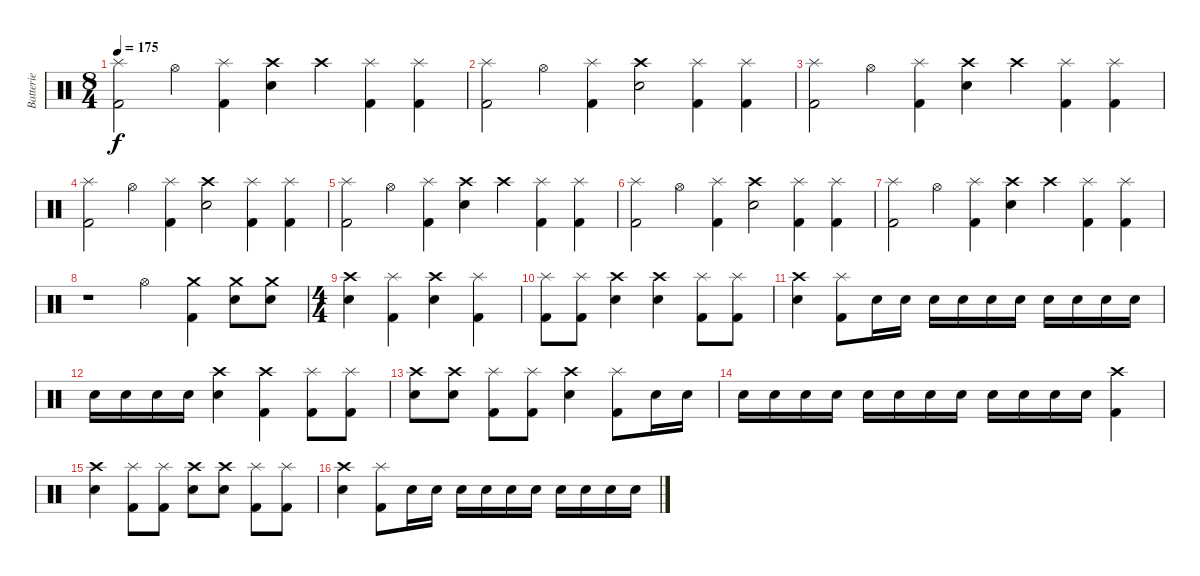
\track ("Batterie" "Batterie") {instrument percussion}
\staff {score}
\articulation defaults
\ts (8 4)
\tempo 175
\clef neutral
\ks c
("Splash (hit)" "Kick (hit) 2").2{dy f} "Hi-Hat (open)".4 ("Splash (hit)" "Kick (hit) 2").4 ("Crash high (hit)" "Snare (hit) 2").4 "Crash high (hit)".4 ("Splash (hit)" "Kick (hit) 2").4 ("Splash (hit)" "Kick (hit) 2").4 |
("Splash (hit)" "Kick (hit) 2").2 "Hi-Hat (open)".4 ("Splash (hit)" "Kick (hit) 2").4 ("Crash high (hit)" "Snare (hit) 2").2 ("Splash (hit)" "Kick (hit) 2").4 ("Splash (hit)" "Kick (hit) 2").4 |
("Splash (hit)" "Kick (hit) 2").2 "Hi-Hat (open)".4 ("Splash (hit)" "Kick (hit) 2").4 ("Crash high (hit)" "Snare (hit) 2").4 "Crash high (hit)".4 ("Splash (hit)" "Kick (hit) 2").4 ("Splash (hit)" "Kick (hit) 2").4 |
("Splash (hit)" "Kick (hit) 2").2 "Hi-Hat (open)".4 ("Splash (hit)" "Kick (hit) 2").4 ("Crash high (hit)" "Snare (hit) 2").2 ("Splash (hit)" "Kick (hit) 2").4 ("Splash (hit)" "Kick (hit) 2").4 |
("Splash (hit)" "Kick (hit) 2").2 "Hi-Hat (open)".4 ("Splash (hit)" "Kick (hit) 2").4 ("Crash high (hit)" "Snare (hit) 2").4 "Crash high (hit)".4 ("Splash (hit)" "Kick (hit) 2").4 ("Splash (hit)" "Kick (hit) 2").4 |
("Splash (hit)" "Kick (hit) 2").2 "Hi-Hat (open)".4 ("Splash (hit)" "Kick (hit) 2").4 ("Crash high (hit)" "Snare (hit) 2").2 ("Splash (hit)" "Kick (hit) 2").4 ("Splash (hit)" "Kick (hit) 2").4 |
("Splash (hit)" "Kick (hit) 2").2 "Hi-Hat (open)".4 ("Splash (hit)" "Kick (hit) 2").4 ("Crash high (hit)" "Snare (hit) 2").4 "Crash high (hit)".4 ("Splash (hit)" "Kick (hit) 2").4 ("Splash (hit)" "Kick (hit) 2").4 |
r.1 "Hi-Hat (open)".2 ("Crash medium (hit)" "Kick (hit) 2").4 ("Crash medium (hit)" "Snare (hit) 2").8 ("Crash medium (hit)" "Snare (hit) 2").8 |
\ts (4 4)
("Crash high (hit)" "Snare (hit) 2").4 ("Splash (hit)" "Kick (hit) 2").4 ("Crash high (hit)" "Snare (hit) 2").4 ("Splash (hit)" "Kick (hit) 2").4 |
("Splash (hit)" "Kick (hit) 2").8 ("Splash (hit)" "Kick (hit) 2").8 ("Crash high (hit)" "Snare (hit) 2").4 ("Crash high (hit)" "Snare (hit) 2").4 ("Splash (hit)" "Kick (hit) 2").8 ("Splash (hit)" "Kick (hit) 2").8 |
("Crash high (hit)" "Snare (hit) 2").4 ("Splash (hit)" "Kick (hit) 2").8 "Snare (hit) 2".16 "Snare (hit) 2".16 "Snare (hit) 2".16 "Snare (hit) 2".16 "Snare (hit) 2".16 "Snare (hit) 2".16 "Snare (hit) 2".16 "Snare (hit) 2".16 "Snare (hit) 2".16 "Snare (hit) 2".16 |
"Snare (hit) 2".16 "Snare (hit) 2".16 "Snare (hit) 2".16 "Snare (hit) 2".16 ("Crash high (hit)" "Snare (hit) 2").4 ("Crash high (hit)" "Kick (hit) 2").4 ("Splash (hit)" "Kick (hit) 2").8 ("Splash (hit)" "Kick (hit) 2").8 |
("Crash high (hit)" "Snare (hit) 2").8 ("Crash high (hit)" "Snare (hit) 2").8 ("Splash (hit)" "Kick (hit) 2").8 ("Splash (hit)" "Kick (hit) 2").8 ("Crash high (hit)" "Snare (hit) 2").4 ("Splash (hit)" "Kick (hit) 2").8 "Snare (hit) 2".16 "Snare (hit) 2".16 |
"Snare (hit) 2".16 "Snare (hit) 2".16 "Snare (hit) 2".16 "Snare (hit) 2".16 "Snare (hit) 2".16 "Snare (hit) 2".16 "Snare (hit) 2".16 "Snare (hit) 2".16 "Snare (hit) 2".16 "Snare (hit) 2".16 "Snare (hit) 2".16 "Snare (hit) 2".16 ("Crash high (hit)" "Kick (hit) 2").4 |
("Crash high (hit)" "Snare (hit) 2").4 ("Splash (hit)" "Kick (hit) 2").8 ("Splash (hit)" "Kick (hit) 2").8 ("Crash high (hit)" "Snare (hit) 2").8 ("Crash high (hit)" "Snare (hit) 2").8 ("Splash (hit)" "Kick (hit) 2").8 ("Splash (hit)" "Kick (hit) 2").8 |
("Crash high (hit)" "Snare (hit) 2").4 ("Splash (hit)" "Kick (hit) 2").8 "Snare (hit) 2".16 "Snare (hit) 2".16 "Snare (hit) 2".16 "Snare (hit) 2".16 "Snare (hit) 2".16 "Snare (hit) 2".16 "Snare (hit) 2".16 "Snare (hit) 2".16 "Snare (hit) 2".16 "Snare (hit) 2".16
